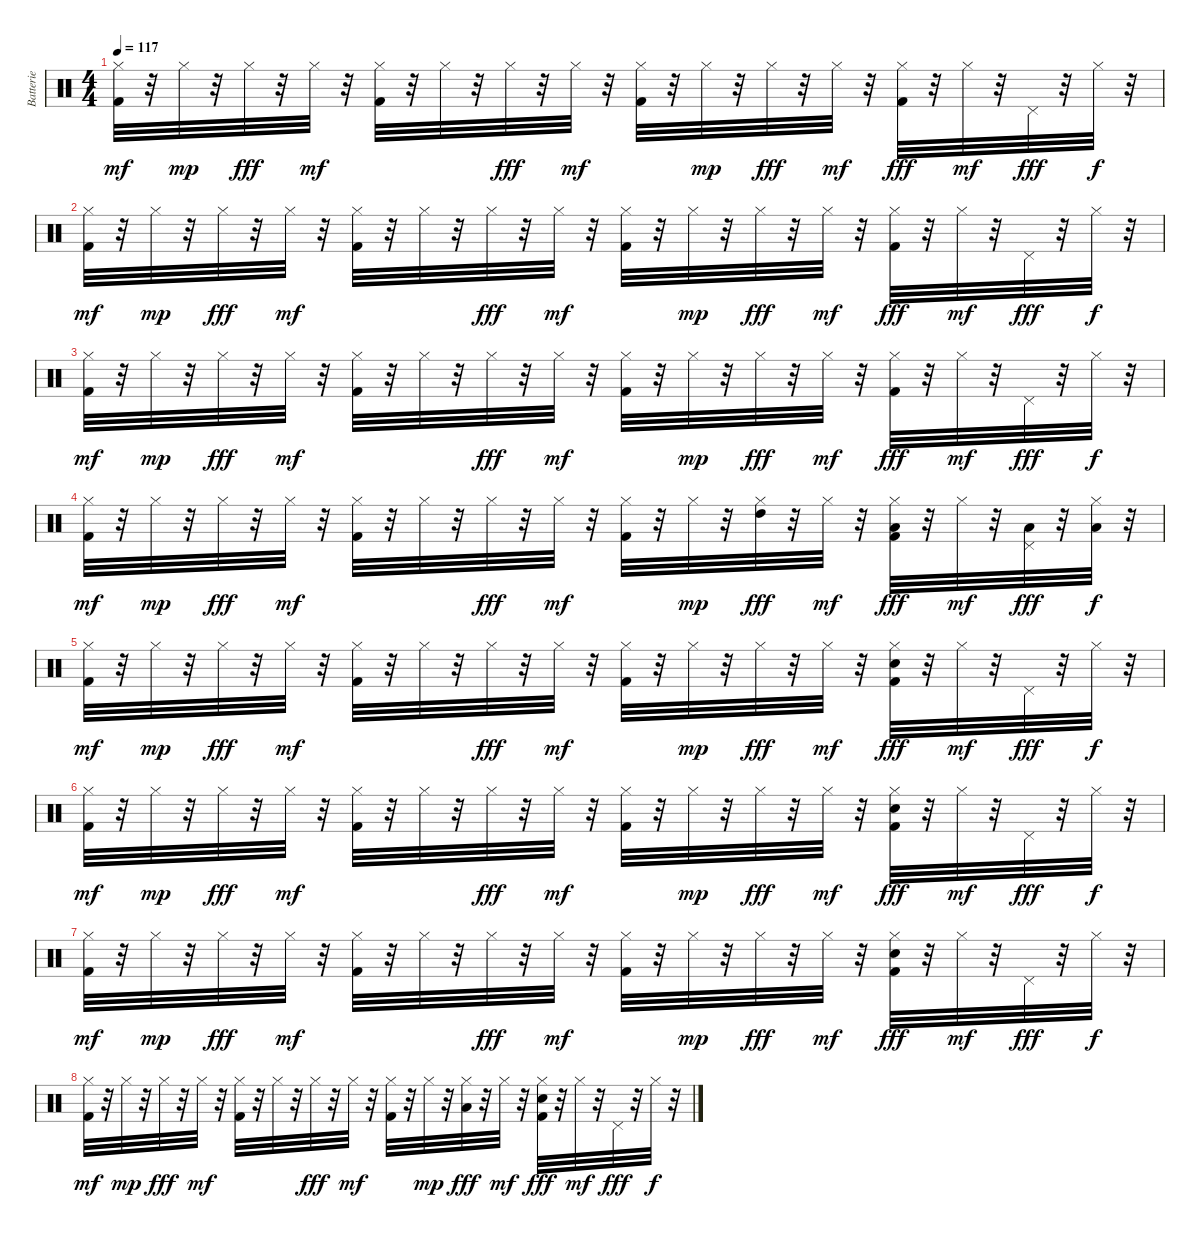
\track ("Batterie" "Batterie") {instrument percussion}
\staff {score}
\articulation defaults
\ts (4 4)
\tempo 117
\clef neutral
\ks c
("Kick (hit) 2" "Hi-Hat (closed)").32{dy mf} r.32 "Hi-Hat (closed)".32{dy mp} r.32 "Hi-Hat (closed)".32{dy fff} r.32 "Hi-Hat (closed)".32{dy mf} r.32 ("Kick (hit) 2" "Hi-Hat (closed)").32 r.32 "Hi-Hat (closed)".32 r.32 "Hi-Hat (closed)".32{dy fff} r.32 "Hi-Hat (closed)".32{dy mf} r.32 ("Kick (hit) 2" "Hi-Hat (closed)").32 r.32 "Hi-Hat (closed)".32{dy mp} r.32 "Hi-Hat (closed)".32{dy fff} r.32 "Hi-Hat (closed)".32{dy mf} r.32 ("Kick (hit) 2" "Hi-Hat (closed)").32{dy fff} r.32 "Hi-Hat (closed)".32{dy mf} r.32 "Pedal Hi-Hat (hit)".32{dy fff} r.32 "Hi-Hat (closed)".32{dy f} r.32 |
("Kick (hit) 2" "Hi-Hat (closed)").32{dy mf} r.32 "Hi-Hat (closed)".32{dy mp} r.32 "Hi-Hat (closed)".32{dy fff} r.32 "Hi-Hat (closed)".32{dy mf} r.32 ("Kick (hit) 2" "Hi-Hat (closed)").32 r.32 "Hi-Hat (closed)".32 r.32 "Hi-Hat (closed)".32{dy fff} r.32 "Hi-Hat (closed)".32{dy mf} r.32 ("Kick (hit) 2" "Hi-Hat (closed)").32 r.32 "Hi-Hat (closed)".32{dy mp} r.32 "Hi-Hat (closed)".32{dy fff} r.32 "Hi-Hat (closed)".32{dy mf} r.32 ("Kick (hit) 2" "Hi-Hat (closed)").32{dy fff} r.32 "Hi-Hat (closed)".32{dy mf} r.32 "Pedal Hi-Hat (hit)".32{dy fff} r.32 "Hi-Hat (closed)".32{dy f} r.32 |
("Kick (hit) 2" "Hi-Hat (closed)").32{dy mf} r.32 "Hi-Hat (closed)".32{dy mp} r.32 "Hi-Hat (closed)".32{dy fff} r.32 "Hi-Hat (closed)".32{dy mf} r.32 ("Kick (hit) 2" "Hi-Hat (closed)").32 r.32 "Hi-Hat (closed)".32 r.32 "Hi-Hat (closed)".32{dy fff} r.32 "Hi-Hat (closed)".32{dy mf} r.32 ("Kick (hit) 2" "Hi-Hat (closed)").32 r.32 "Hi-Hat (closed)".32{dy mp} r.32 "Hi-Hat (closed)".32{dy fff} r.32 "Hi-Hat (closed)".32{dy mf} r.32 ("Kick (hit) 2" "Hi-Hat (closed)").32{dy fff} r.32 "Hi-Hat (closed)".32{dy mf} r.32 "Pedal Hi-Hat (hit)".32{dy fff} r.32 "Hi-Hat (closed)".32{dy f} r.32 |
("Kick (hit) 2" "Hi-Hat (closed)").32{dy mf} r.32 "Hi-Hat (closed)".32{dy mp} r.32 "Hi-Hat (closed)".32{dy fff} r.32 "Hi-Hat (closed)".32{dy mf} r.32 ("Kick (hit) 2" "Hi-Hat (closed)").32 r.32 "Hi-Hat (closed)".32 r.32 "Hi-Hat (closed)".32{dy fff} r.32 "Hi-Hat (closed)".32{dy mf} r.32 ("Kick (hit) 2" "Hi-Hat (closed)").32 r.32 "Hi-Hat (closed)".32{dy mp} r.32 ("Hi-Hat (closed)" "High Tom (hit)").32{dy fff} r.32 "Hi-Hat (closed)".32{dy mf} r.32 ("Kick (hit) 2" "Hi-Hat (closed)" "Low Tom (hit)").32{dy fff} r.32 "Hi-Hat (closed)".32{dy mf} r.32 ("Pedal Hi-Hat (hit)" "Low Floor Tom (hit)").32{dy fff} r.32 ("Hi-Hat (closed)" "Low Floor Tom (hit)").32{dy f} r.32 |
("Kick (hit) 2" "Hi-Hat (closed)").32{dy mf} r.32 "Hi-Hat (closed)".32{dy mp} r.32 "Hi-Hat (closed)".32{dy fff} r.32 "Hi-Hat (closed)".32{dy mf} r.32 ("Kick (hit) 2" "Hi-Hat (closed)").32 r.32 "Hi-Hat (closed)".32 r.32 "Hi-Hat (closed)".32{dy fff} r.32 "Hi-Hat (closed)".32{dy mf} r.32 ("Kick (hit) 2" "Hi-Hat (closed)").32 r.32 "Hi-Hat (closed)".32{dy mp} r.32 "Hi-Hat (closed)".32{dy fff} r.32 "Hi-Hat (closed)".32{dy mf} r.32 ("Kick (hit) 2" "Electric Snare (hit)" "Hi-Hat (closed)").32{dy fff} r.32 "Hi-Hat (closed)".32{dy mf} r.32 "Pedal Hi-Hat (hit)".32{dy fff} r.32 "Hi-Hat (closed)".32{dy f} r.32 |
("Kick (hit) 2" "Hi-Hat (closed)").32{dy mf} r.32 "Hi-Hat (closed)".32{dy mp} r.32 "Hi-Hat (closed)".32{dy fff} r.32 "Hi-Hat (closed)".32{dy mf} r.32 ("Kick (hit) 2" "Hi-Hat (closed)").32 r.32 "Hi-Hat (closed)".32 r.32 "Hi-Hat (closed)".32{dy fff} r.32 "Hi-Hat (closed)".32{dy mf} r.32 ("Kick (hit) 2" "Hi-Hat (closed)").32 r.32 "Hi-Hat (closed)".32{dy mp} r.32 "Hi-Hat (closed)".32{dy fff} r.32 "Hi-Hat (closed)".32{dy mf} r.32 ("Kick (hit) 2" "Electric Snare (hit)" "Hi-Hat (closed)").32{dy fff} r.32 "Hi-Hat (closed)".32{dy mf} r.32 "Pedal Hi-Hat (hit)".32{dy fff} r.32 "Hi-Hat (closed)".32{dy f} r.32 |
("Kick (hit) 2" "Hi-Hat (closed)").32{dy mf} r.32 "Hi-Hat (closed)".32{dy mp} r.32 "Hi-Hat (closed)".32{dy fff} r.32 "Hi-Hat (closed)".32{dy mf} r.32 ("Kick (hit) 2" "Hi-Hat (closed)").32 r.32 "Hi-Hat (closed)".32 r.32 "Hi-Hat (closed)".32{dy fff} r.32 "Hi-Hat (closed)".32{dy mf} r.32 ("Kick (hit) 2" "Hi-Hat (closed)").32 r.32 "Hi-Hat (closed)".32{dy mp} r.32 "Hi-Hat (closed)".32{dy fff} r.32 "Hi-Hat (closed)".32{dy mf} r.32 ("Kick (hit) 2" "Electric Snare (hit)" "Hi-Hat (closed)").32{dy fff} r.32 "Hi-Hat (closed)".32{dy mf} r.32 "Pedal Hi-Hat (hit)".32{dy fff} r.32 "Hi-Hat (closed)".32{dy f} r.32 |
("Kick (hit) 2" "Hi-Hat (closed)").32{dy mf} r.32 "Hi-Hat (closed)".32{dy mp} r.32 "Hi-Hat (closed)".32{dy fff} r.32 "Hi-Hat (closed)".32{dy mf} r.32 ("Kick (hit) 2" "Hi-Hat (closed)").32 r.32 "Hi-Hat (closed)".32 r.32 "Hi-Hat (closed)".32{dy fff} r.32 "Hi-Hat (closed)".32{dy mf} r.32 ("Kick (hit) 2" "Hi-Hat (closed)").32 r.32 "Hi-Hat (closed)".32{dy mp} r.32 ("Hi-Hat (closed)" "Low Tom (hit)").32{dy fff} r.32 "Hi-Hat (closed)".32{dy mf} r.32 ("Kick (hit) 2" "Electric Snare (hit)" "Hi-Hat (closed)").32{dy fff} r.32 "Hi-Hat (closed)".32{dy mf} r.32 "Pedal Hi-Hat (hit)".32{dy fff} r.32 "Hi-Hat (closed)".32{dy f} r.32
